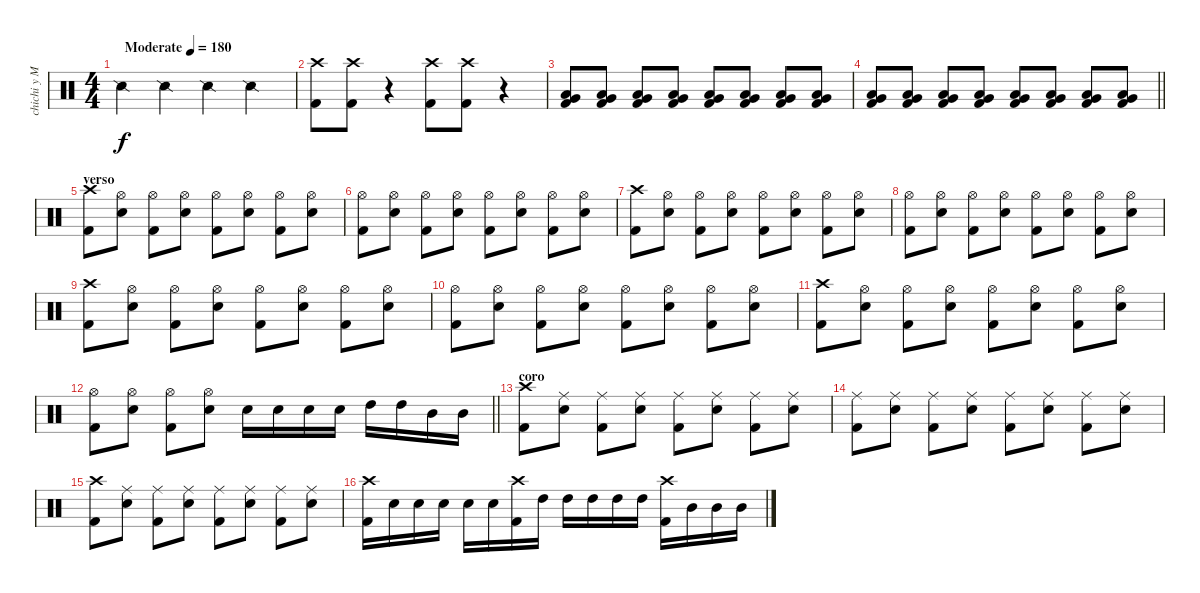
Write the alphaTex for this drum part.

\track ("chichi y MAlejo" "chichi y M") {instrument percussion}
\staff {score}
\articulation defaults
\ts (4 4)
\tempo (180 "Moderate")
\clef neutral
\ks c "Snare (side stick) 2".4{dy f} "Snare (side stick) 2".4 "Snare (side stick) 2".4 "Snare (side stick) 2".4
|
("Kick (hit) 2" "Crash high (hit)").8 ("Kick (hit) 2" "Crash high (hit)").8 r.4 ("Kick (hit) 2" "Crash high (hit)").8 ("Kick (hit) 2" "Crash high (hit)").8 r.4{volume 5} |
("Kick (hit) 2" "Very Low Tom (hit)" "Low Floor Tom (hit)").8{volume 14} ("Kick (hit) 2" "Very Low Tom (hit)" "Low Floor Tom (hit)").8 ("Kick (hit) 2" "Very Low Tom (hit)" "Low Floor Tom (hit)").8 ("Kick (hit) 2" "Very Low Tom (hit)" "Low Floor Tom (hit)").8 ("Kick (hit) 2" "Very Low Tom (hit)" "Low Floor Tom (hit)").8 ("Kick (hit) 2" "Very Low Tom (hit)" "Low Floor Tom (hit)").8 ("Kick (hit) 2" "Very Low Tom (hit)" "Low Floor Tom (hit)").8 ("Kick (hit) 2" "Very Low Tom (hit)" "Low Floor Tom (hit)").8 |
\barLineRight lightlight
("Kick (hit) 2" "Very Low Tom (hit)" "Low Floor Tom (hit)").8 ("Kick (hit) 2" "Very Low Tom (hit)" "Low Floor Tom (hit)").8 ("Kick (hit) 2" "Very Low Tom (hit)" "Low Floor Tom (hit)").8 ("Kick (hit) 2" "Very Low Tom (hit)" "Low Floor Tom (hit)").8 ("Kick (hit) 2" "Very Low Tom (hit)" "Low Floor Tom (hit)").8 ("Kick (hit) 2" "Very Low Tom (hit)" "Low Floor Tom (hit)").8 ("Kick (hit) 2" "Very Low Tom (hit)" "Low Floor Tom (hit)").8 ("Kick (hit) 2" "Very Low Tom (hit)" "Low Floor Tom (hit)").8 |
\section ("" "verso")
("Crash high (hit)" "Kick (hit) 2").8 ("Hi-Hat (open)" "Snare (hit) 2").8 ("Hi-Hat (open)" "Kick (hit) 2").8 ("Hi-Hat (open)" "Snare (hit) 2").8 ("Hi-Hat (open)" "Kick (hit) 2").8 ("Hi-Hat (open)" "Snare (hit) 2").8 ("Hi-Hat (open)" "Kick (hit) 2").8 ("Hi-Hat (open)" "Snare (hit) 2").8 |
("Hi-Hat (open)" "Kick (hit) 2").8 ("Hi-Hat (open)" "Snare (hit) 2").8 ("Hi-Hat (open)" "Kick (hit) 2").8 ("Hi-Hat (open)" "Snare (hit) 2").8 ("Hi-Hat (open)" "Kick (hit) 2").8 ("Hi-Hat (open)" "Snare (hit) 2").8 ("Hi-Hat (open)" "Kick (hit) 2").8 ("Hi-Hat (open)" "Snare (hit) 2").8 |
("Crash high (hit)" "Kick (hit) 2").8 ("Hi-Hat (open)" "Snare (hit) 2").8 ("Hi-Hat (open)" "Kick (hit) 2").8 ("Hi-Hat (open)" "Snare (hit) 2").8 ("Hi-Hat (open)" "Kick (hit) 2").8 ("Hi-Hat (open)" "Snare (hit) 2").8 ("Hi-Hat (open)" "Kick (hit) 2").8 ("Hi-Hat (open)" "Snare (hit) 2").8 |
("Hi-Hat (open)" "Kick (hit) 2").8 ("Hi-Hat (open)" "Snare (hit) 2").8 ("Hi-Hat (open)" "Kick (hit) 2").8 ("Hi-Hat (open)" "Snare (hit) 2").8 ("Hi-Hat (open)" "Kick (hit) 2").8 ("Hi-Hat (open)" "Snare (hit) 2").8 ("Hi-Hat (open)" "Kick (hit) 2").8 ("Hi-Hat (open)" "Snare (hit) 2").8 |
("Crash high (hit)" "Kick (hit) 2").8 ("Hi-Hat (open)" "Snare (hit) 2").8 ("Hi-Hat (open)" "Kick (hit) 2").8 ("Hi-Hat (open)" "Snare (hit) 2").8 ("Hi-Hat (open)" "Kick (hit) 2").8 ("Hi-Hat (open)" "Snare (hit) 2").8 ("Hi-Hat (open)" "Kick (hit) 2").8 ("Hi-Hat (open)" "Snare (hit) 2").8 |
("Hi-Hat (open)" "Kick (hit) 2").8 ("Hi-Hat (open)" "Snare (hit) 2").8 ("Hi-Hat (open)" "Kick (hit) 2").8 ("Hi-Hat (open)" "Snare (hit) 2").8 ("Hi-Hat (open)" "Kick (hit) 2").8 ("Hi-Hat (open)" "Snare (hit) 2").8 ("Hi-Hat (open)" "Kick (hit) 2").8 ("Hi-Hat (open)" "Snare (hit) 2").8 |
("Crash high (hit)" "Kick (hit) 2").8 ("Hi-Hat (open)" "Snare (hit) 2").8 ("Hi-Hat (open)" "Kick (hit) 2").8 ("Hi-Hat (open)" "Snare (hit) 2").8 ("Hi-Hat (open)" "Kick (hit) 2").8 ("Hi-Hat (open)" "Snare (hit) 2").8 ("Hi-Hat (open)" "Kick (hit) 2").8 ("Hi-Hat (open)" "Snare (hit) 2").8 |
\barLineRight lightlight
("Hi-Hat (open)" "Kick (hit) 2").8 ("Hi-Hat (open)" "Snare (hit) 2").8 ("Hi-Hat (open)" "Kick (hit) 2").8 ("Hi-Hat (open)" "Snare (hit) 2").8 "Snare (hit) 2".16 "Snare (hit) 2".16 "Snare (hit) 2".16 "Snare (hit) 2".16 "High Tom (hit)".16 "High Tom (hit)".16 "Mid Tom (hit)".16 "Mid Tom (hit)".16 |
\section ("" "coro")
("Crash high (hit)" "Kick (hit) 2").8 ("Ride (middle)" "Snare (hit) 2").8 ("Ride (middle)" "Kick (hit) 2").8 ("Ride (middle)" "Snare (hit) 2").8 ("Ride (middle)" "Kick (hit) 2").8 ("Ride (middle)" "Snare (hit) 2").8 ("Ride (middle)" "Kick (hit) 2").8 ("Ride (middle)" "Snare (hit) 2").8 |
("Ride (middle)" "Kick (hit) 2").8 ("Ride (middle)" "Snare (hit) 2").8 ("Ride (middle)" "Kick (hit) 2").8 ("Ride (middle)" "Snare (hit) 2").8 ("Ride (middle)" "Kick (hit) 2").8 ("Ride (middle)" "Snare (hit) 2").8 ("Ride (middle)" "Kick (hit) 2").8 ("Ride (middle)" "Snare (hit) 2").8 |
("Crash high (hit)" "Kick (hit) 2").8 ("Ride (middle)" "Snare (hit) 2").8 ("Ride (middle)" "Kick (hit) 2").8 ("Ride (middle)" "Snare (hit) 2").8 ("Ride (middle)" "Kick (hit) 2").8 ("Ride (middle)" "Snare (hit) 2").8 ("Ride (middle)" "Kick (hit) 2").8 ("Ride (middle)" "Snare (hit) 2").8 |
("Crash high (hit)" "Kick (hit) 2").16 "Snare (hit) 2".16 "Snare (hit) 2".16 "Snare (hit) 2".16 "Snare (hit) 2".16 "Snare (hit) 2".16 ("Crash high (hit)" "Kick (hit) 2").16 "High Tom (hit)".16 "High Tom (hit)".16 "High Tom (hit)".16 "High Tom (hit)".16 "High Tom (hit)".16 ("Crash high (hit)" "Kick (hit) 2").16 "Mid Tom (hit)".16 "Mid Tom (hit)".16 "Mid Tom (hit)".16
